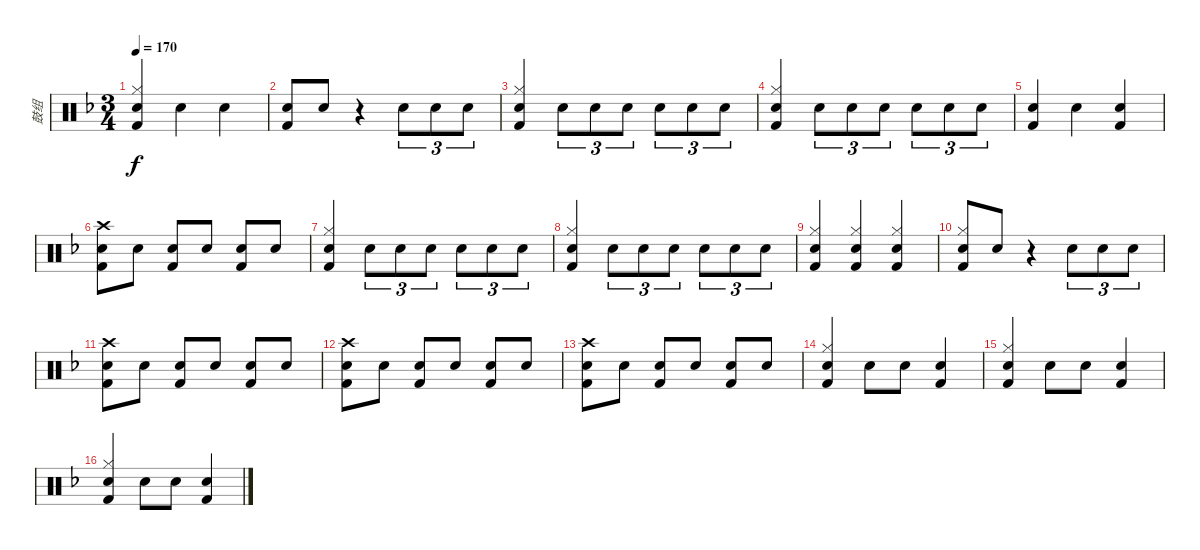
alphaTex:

\track ("鼓组" "鼓组") {instrument percussion}
\staff {score}
\articulation defaults
\ts (3 4)
\tempo 170
\clef neutral
\ks f
("Snare (hit) 2" "Hi-Hat (closed)" "Kick (hit) 2").4{dy f} "Snare (hit) 2".4 "Snare (hit) 2".4 |
("Snare (hit) 2" "Kick (hit) 2").8 "Snare (hit) 2".8 r.4 "Snare (hit) 2".8{tu (3 2)} "Snare (hit) 2".8{tu (3 2)} "Snare (hit) 2".8{tu (3 2)} |
("Snare (hit) 2" "Hi-Hat (closed)" "Kick (hit) 2").4 "Snare (hit) 2".8{tu (3 2)} "Snare (hit) 2".8{tu (3 2)} "Snare (hit) 2".8{tu (3 2)} "Snare (hit) 2".8{tu (3 2)} "Snare (hit) 2".8{tu (3 2)} "Snare (hit) 2".8{tu (3 2)} |
("Snare (hit) 2" "Hi-Hat (closed)" "Kick (hit) 2").4 "Snare (hit) 2".8{tu (3 2)} "Snare (hit) 2".8{tu (3 2)} "Snare (hit) 2".8{tu (3 2)} "Snare (hit) 2".8{tu (3 2)} "Snare (hit) 2".8{tu (3 2)} "Snare (hit) 2".8{tu (3 2)} |
("Snare (hit) 2" "Kick (hit) 2").4 "Snare (hit) 2".4 ("Snare (hit) 2" "Kick (hit) 2").4 |
("Snare (hit) 2" "Crash high (hit)" "Kick (hit) 2").8 "Snare (hit) 2".8 ("Snare (hit) 2" "Kick (hit) 2").8 "Snare (hit) 2".8 ("Snare (hit) 2" "Kick (hit) 2").8 "Snare (hit) 2".8 |
("Snare (hit) 2" "Hi-Hat (closed)" "Kick (hit) 2").4 "Snare (hit) 2".8{tu (3 2)} "Snare (hit) 2".8{tu (3 2)} "Snare (hit) 2".8{tu (3 2)} "Snare (hit) 2".8{tu (3 2)} "Snare (hit) 2".8{tu (3 2)} "Snare (hit) 2".8{tu (3 2)} |
("Snare (hit) 2" "Hi-Hat (closed)" "Kick (hit) 2").4 "Snare (hit) 2".8{tu (3 2)} "Snare (hit) 2".8{tu (3 2)} "Snare (hit) 2".8{tu (3 2)} "Snare (hit) 2".8{tu (3 2)} "Snare (hit) 2".8{tu (3 2)} "Snare (hit) 2".8{tu (3 2)} |
("Snare (hit) 2" "Hi-Hat (closed)" "Kick (hit) 2").4 ("Snare (hit) 2" "Hi-Hat (closed)" "Kick (hit) 2").4 ("Snare (hit) 2" "Hi-Hat (closed)" "Kick (hit) 2").4 |
("Snare (hit) 2" "Hi-Hat (closed)" "Kick (hit) 2").8 "Snare (hit) 2".8 r.4 "Snare (hit) 2".8{tu (3 2)} "Snare (hit) 2".8{tu (3 2)} "Snare (hit) 2".8{tu (3 2)} |
("Snare (hit) 2" "Crash high (hit)" "Kick (hit) 2").8 "Snare (hit) 2".8 ("Snare (hit) 2" "Kick (hit) 2").8 "Snare (hit) 2".8 ("Snare (hit) 2" "Kick (hit) 2").8 "Snare (hit) 2".8 |
("Snare (hit) 2" "Crash high (hit)" "Kick (hit) 2").8 "Snare (hit) 2".8 ("Snare (hit) 2" "Kick (hit) 2").8 "Snare (hit) 2".8 ("Snare (hit) 2" "Kick (hit) 2").8 "Snare (hit) 2".8 |
("Snare (hit) 2" "Crash high (hit)" "Kick (hit) 2").8 "Snare (hit) 2".8 ("Snare (hit) 2" "Kick (hit) 2").8 "Snare (hit) 2".8 ("Snare (hit) 2" "Kick (hit) 2").8 "Snare (hit) 2".8 |
("Snare (hit) 2" "Hi-Hat (closed)" "Kick (hit) 2").4 "Snare (hit) 2".8 "Snare (hit) 2".8 ("Snare (hit) 2" "Kick (hit) 2").4 |
("Snare (hit) 2" "Hi-Hat (closed)" "Kick (hit) 2").4 "Snare (hit) 2".8 "Snare (hit) 2".8 ("Snare (hit) 2" "Kick (hit) 2").4 |
("Snare (hit) 2" "Hi-Hat (closed)" "Kick (hit) 2").4 "Snare (hit) 2".8 "Snare (hit) 2".8 ("Snare (hit) 2" "Kick (hit) 2").4
